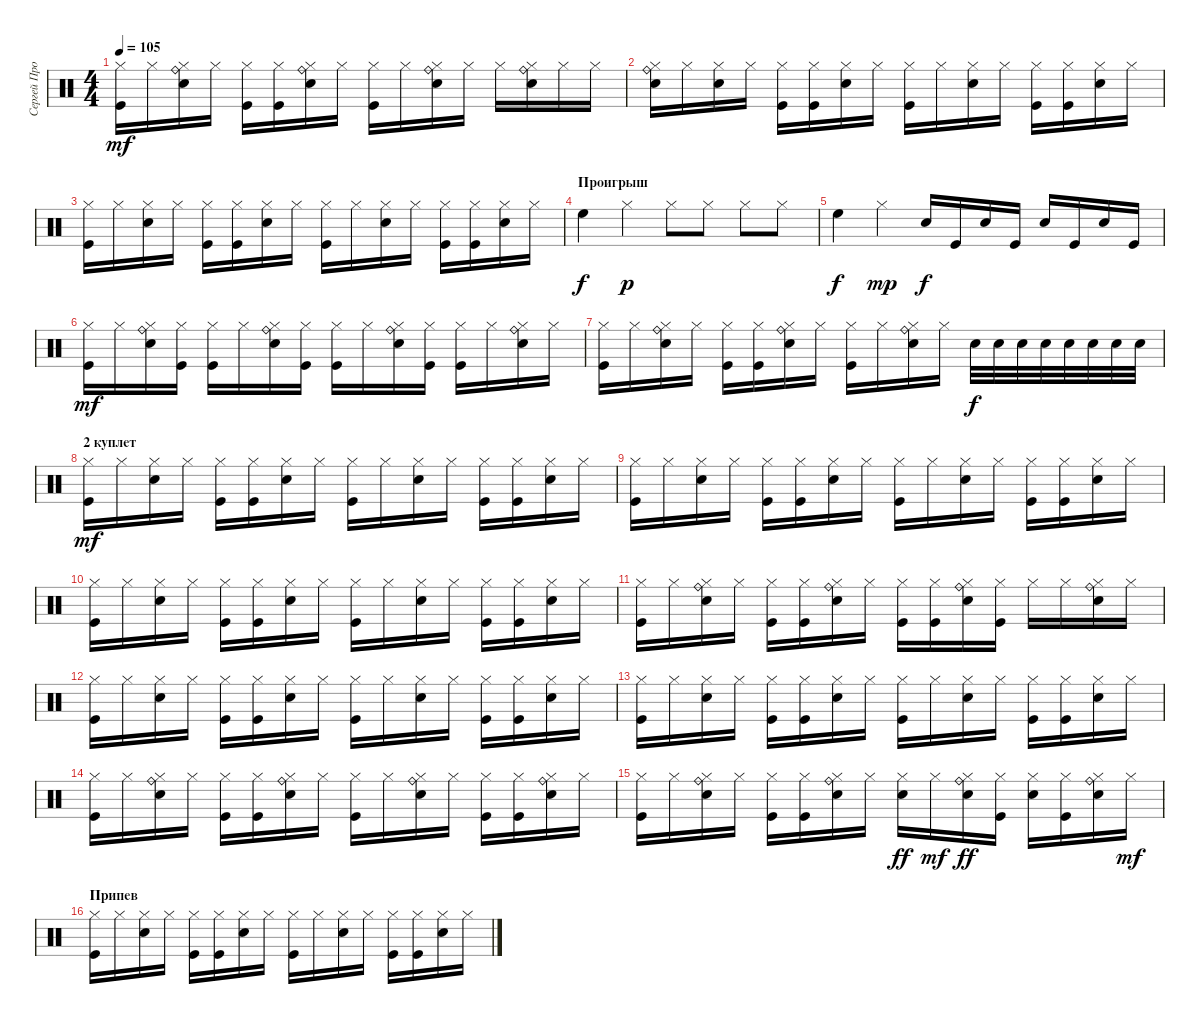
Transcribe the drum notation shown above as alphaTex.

\track ("Сергей Прокофьев" "Сергей Про") {instrument percussion}
\staff {score}
\articulation defaults
\ts (4 4)
\tempo 105
\clef neutral
\ks c
("Hi-Hat (closed)" "Kick (hit)").16{dy mf} "Hi-Hat (closed)".16 ("Hi-Hat (closed)" "Snare (hit) 2" "Ride (bell)").16 "Hi-Hat (closed)".16 ("Hi-Hat (closed)" "Kick (hit)").16 ("Hi-Hat (closed)" "Kick (hit)").16 ("Hi-Hat (closed)" "Snare (hit) 2" "Ride (bell)").16 "Hi-Hat (closed)".16 ("Hi-Hat (closed)" "Kick (hit)").16 "Hi-Hat (closed)".16 ("Hi-Hat (closed)" "Snare (hit) 2" "Ride (bell)").16 "Hi-Hat (closed)".16 "Hi-Hat (closed)".16 ("Hi-Hat (closed)" "Snare (hit) 2" "Ride (bell)").16 "Hi-Hat (closed)".16 "Hi-Hat (closed)".16 |
("Hi-Hat (closed)" "Snare (hit) 2" "Ride (bell)").16 "Hi-Hat (closed)".16 ("Hi-Hat (closed)" "Snare (hit) 2").16 "Hi-Hat (closed)".16 ("Hi-Hat (closed)" "Kick (hit)").16 ("Hi-Hat (closed)" "Kick (hit)").16 ("Hi-Hat (closed)" "Snare (hit) 2").16 "Hi-Hat (closed)".16 ("Hi-Hat (closed)" "Kick (hit)").16 "Hi-Hat (closed)".16 ("Hi-Hat (closed)" "Snare (hit) 2").16 "Hi-Hat (closed)".16 ("Hi-Hat (closed)" "Kick (hit)").16 ("Hi-Hat (closed)" "Kick (hit)").16 ("Hi-Hat (closed)" "Snare (hit) 2").16 "Hi-Hat (closed)".16 |
("Hi-Hat (closed)" "Kick (hit)").16 "Hi-Hat (closed)".16 ("Hi-Hat (closed)" "Snare (hit) 2").16 "Hi-Hat (closed)".16 ("Hi-Hat (closed)" "Kick (hit)").16 ("Hi-Hat (closed)" "Kick (hit)").16 ("Hi-Hat (closed)" "Snare (hit) 2").16 "Hi-Hat (closed)".16 ("Hi-Hat (closed)" "Kick (hit)").16 "Hi-Hat (closed)".16 ("Hi-Hat (closed)" "Snare (hit) 2").16 "Hi-Hat (closed)".16 ("Hi-Hat (closed)" "Kick (hit)").16 ("Hi-Hat (closed)" "Kick (hit)").16 ("Hi-Hat (closed)" "Snare (hit) 2").16 "Hi-Hat (closed)".16 |
\section ("" "Проигрыш")
"High Floor Tom (hit)".4{dy f} "Hi-Hat (closed)".4{dy p} "Hi-Hat (closed)".8 "Hi-Hat (closed)".8 "Hi-Hat (closed)".8 "Hi-Hat (closed)".8 |
"High Floor Tom (hit)".4{dy f} "Hi-Hat (closed)".4{dy mp} "Snare (hit) 2".16{dy f} "Kick (hit)".16 "Snare (hit) 2".16 "Kick (hit)".16 "Snare (hit) 2".16 "Kick (hit)".16 "Snare (hit) 2".16 "Kick (hit)".16 |
("Hi-Hat (closed)" "Kick (hit)").16{dy mf} "Hi-Hat (closed)".16 ("Hi-Hat (closed)" "Snare (hit) 2" "Ride (bell)").16 ("Hi-Hat (closed)" "Kick (hit)").16 ("Hi-Hat (closed)" "Kick (hit)").16 "Hi-Hat (closed)".16 ("Hi-Hat (closed)" "Snare (hit) 2" "Ride (bell)").16 ("Hi-Hat (closed)" "Kick (hit)").16 ("Hi-Hat (closed)" "Kick (hit)").16 "Hi-Hat (closed)".16 ("Hi-Hat (closed)" "Snare (hit) 2" "Ride (bell)").16 ("Hi-Hat (closed)" "Kick (hit)").16 ("Hi-Hat (closed)" "Kick (hit)").16 "Hi-Hat (closed)".16 ("Hi-Hat (closed)" "Snare (hit) 2" "Ride (bell)").16 "Hi-Hat (closed)".16 |
("Hi-Hat (closed)" "Kick (hit)").16 "Hi-Hat (closed)".16 ("Hi-Hat (closed)" "Snare (hit) 2" "Ride (bell)").16 "Hi-Hat (closed)".16 ("Hi-Hat (closed)" "Kick (hit)").16 ("Hi-Hat (closed)" "Kick (hit)").16 ("Hi-Hat (closed)" "Snare (hit) 2" "Ride (bell)").16 "Hi-Hat (closed)".16 ("Hi-Hat (closed)" "Kick (hit)").16 "Hi-Hat (closed)".16 ("Hi-Hat (closed)" "Snare (hit) 2" "Ride (bell)").16 "Hi-Hat (closed)".16 "Snare (hit) 2".32{dy f} "Snare (hit) 2".32 "Snare (hit) 2".32 "Snare (hit) 2".32 "Snare (hit) 2".32 "Snare (hit) 2".32 "Snare (hit) 2".32 "Snare (hit) 2".32 |
\section ("" "2 куплет")
("Hi-Hat (closed)" "Kick (hit)").16{dy mf} "Hi-Hat (closed)".16 ("Hi-Hat (closed)" "Snare (hit) 2").16 "Hi-Hat (closed)".16 ("Hi-Hat (closed)" "Kick (hit)").16 ("Hi-Hat (closed)" "Kick (hit)").16 ("Hi-Hat (closed)" "Snare (hit) 2").16 "Hi-Hat (closed)".16 ("Hi-Hat (closed)" "Kick (hit)").16 "Hi-Hat (closed)".16 ("Hi-Hat (closed)" "Snare (hit) 2").16 "Hi-Hat (closed)".16 ("Hi-Hat (closed)" "Kick (hit)").16 ("Hi-Hat (closed)" "Kick (hit)").16 ("Hi-Hat (closed)" "Snare (hit) 2").16 "Hi-Hat (closed)".16 |
("Hi-Hat (closed)" "Kick (hit)").16 "Hi-Hat (closed)".16 ("Hi-Hat (closed)" "Snare (hit) 2").16 "Hi-Hat (closed)".16 ("Hi-Hat (closed)" "Kick (hit)").16 ("Hi-Hat (closed)" "Kick (hit)").16 ("Hi-Hat (closed)" "Snare (hit) 2").16 "Hi-Hat (closed)".16 ("Hi-Hat (closed)" "Kick (hit)").16 "Hi-Hat (closed)".16 ("Hi-Hat (closed)" "Snare (hit) 2").16 "Hi-Hat (closed)".16 ("Hi-Hat (closed)" "Kick (hit)").16 ("Hi-Hat (closed)" "Kick (hit)").16 ("Hi-Hat (closed)" "Snare (hit) 2").16 "Hi-Hat (closed)".16 |
("Hi-Hat (closed)" "Kick (hit)").16 "Hi-Hat (closed)".16 ("Hi-Hat (closed)" "Snare (hit) 2").16 "Hi-Hat (closed)".16 ("Hi-Hat (closed)" "Kick (hit)").16 ("Hi-Hat (closed)" "Kick (hit)").16 ("Hi-Hat (closed)" "Snare (hit) 2").16 "Hi-Hat (closed)".16 ("Hi-Hat (closed)" "Kick (hit)").16 "Hi-Hat (closed)".16 ("Hi-Hat (closed)" "Snare (hit) 2").16 "Hi-Hat (closed)".16 ("Hi-Hat (closed)" "Kick (hit)").16 ("Hi-Hat (closed)" "Kick (hit)").16 ("Hi-Hat (closed)" "Snare (hit) 2").16 "Hi-Hat (closed)".16 |
("Hi-Hat (closed)" "Kick (hit)").16 "Hi-Hat (closed)".16 ("Hi-Hat (closed)" "Snare (hit) 2" "Ride (bell)").16 "Hi-Hat (closed)".16 ("Hi-Hat (closed)" "Kick (hit)").16 ("Hi-Hat (closed)" "Kick (hit)").16 ("Hi-Hat (closed)" "Snare (hit) 2" "Ride (bell)").16 "Hi-Hat (closed)".16 ("Hi-Hat (closed)" "Kick (hit)").16 ("Hi-Hat (closed)" "Kick (hit)").16 ("Hi-Hat (closed)" "Snare (hit) 2" "Ride (bell)").16 ("Hi-Hat (closed)" "Kick (hit)").16 "Hi-Hat (closed)".16 "Hi-Hat (closed)".16 ("Hi-Hat (closed)" "Snare (hit) 2" "Ride (bell)").16 "Hi-Hat (closed)".16 |
("Hi-Hat (closed)" "Kick (hit)").16 "Hi-Hat (closed)".16 ("Hi-Hat (closed)" "Snare (hit) 2").16 "Hi-Hat (closed)".16 ("Hi-Hat (closed)" "Kick (hit)").16 ("Hi-Hat (closed)" "Kick (hit)").16 ("Hi-Hat (closed)" "Snare (hit) 2").16 "Hi-Hat (closed)".16 ("Hi-Hat (closed)" "Kick (hit)").16 "Hi-Hat (closed)".16 ("Hi-Hat (closed)" "Snare (hit) 2").16 "Hi-Hat (closed)".16 ("Hi-Hat (closed)" "Kick (hit)").16 ("Hi-Hat (closed)" "Kick (hit)").16 ("Hi-Hat (closed)" "Snare (hit) 2").16 "Hi-Hat (closed)".16 |
("Hi-Hat (closed)" "Kick (hit)").16 "Hi-Hat (closed)".16 ("Hi-Hat (closed)" "Snare (hit) 2").16 "Hi-Hat (closed)".16 ("Hi-Hat (closed)" "Kick (hit)").16 ("Hi-Hat (closed)" "Kick (hit)").16 ("Hi-Hat (closed)" "Snare (hit) 2").16 "Hi-Hat (closed)".16 ("Hi-Hat (closed)" "Kick (hit)").16 "Hi-Hat (closed)".16 ("Hi-Hat (closed)" "Snare (hit) 2").16 "Hi-Hat (closed)".16 ("Hi-Hat (closed)" "Kick (hit)").16 ("Hi-Hat (closed)" "Kick (hit)").16 ("Hi-Hat (closed)" "Snare (hit) 2").16 "Hi-Hat (closed)".16 |
("Hi-Hat (closed)" "Kick (hit)").16 "Hi-Hat (closed)".16 ("Hi-Hat (closed)" "Snare (hit) 2" "Ride (bell)").16 "Hi-Hat (closed)".16 ("Hi-Hat (closed)" "Kick (hit)").16 ("Hi-Hat (closed)" "Kick (hit)").16 ("Hi-Hat (closed)" "Snare (hit) 2" "Ride (bell)").16 "Hi-Hat (closed)".16 ("Hi-Hat (closed)" "Kick (hit)").16 "Hi-Hat (closed)".16 ("Hi-Hat (closed)" "Snare (hit) 2" "Ride (bell)").16 "Hi-Hat (closed)".16 ("Hi-Hat (closed)" "Kick (hit)").16 ("Hi-Hat (closed)" "Kick (hit)").16 ("Hi-Hat (closed)" "Snare (hit) 2" "Ride (bell)").16 "Hi-Hat (closed)".16 |
("Hi-Hat (closed)" "Kick (hit)").16 "Hi-Hat (closed)".16 ("Hi-Hat (closed)" "Snare (hit) 2" "Ride (bell)").16 "Hi-Hat (closed)".16 ("Hi-Hat (closed)" "Kick (hit)").16 ("Hi-Hat (closed)" "Kick (hit)").16 ("Hi-Hat (closed)" "Snare (hit) 2" "Ride (bell)").16 "Hi-Hat (closed)".16 ("Hi-Hat (closed)" "Snare (hit) 2").16{dy ff} "Hi-Hat (closed)".16{dy mf} ("Hi-Hat (closed)" "Snare (hit) 2" "Ride (bell)").16{dy ff} ("Hi-Hat (closed)" "Kick (hit)").16 ("Hi-Hat (closed)" "Snare (hit) 2").16 ("Hi-Hat (closed)" "Kick (hit)").16 ("Hi-Hat (closed)" "Snare (hit) 2" "Ride (bell)").16 "Hi-Hat (closed)".16{dy mf} |
\section ("" "Припев")
("Hi-Hat (closed)" "Kick (hit)").16 "Hi-Hat (closed)".16 ("Hi-Hat (closed)" "Snare (hit) 2").16 "Hi-Hat (closed)".16 ("Hi-Hat (closed)" "Kick (hit)").16 ("Hi-Hat (closed)" "Kick (hit)").16 ("Hi-Hat (closed)" "Snare (hit) 2").16 "Hi-Hat (closed)".16 ("Hi-Hat (closed)" "Kick (hit)").16 "Hi-Hat (closed)".16 ("Hi-Hat (closed)" "Snare (hit) 2").16 "Hi-Hat (closed)".16 ("Hi-Hat (closed)" "Kick (hit)").16 ("Hi-Hat (closed)" "Kick (hit)").16 ("Hi-Hat (closed)" "Snare (hit) 2").16 "Hi-Hat (closed)".16
